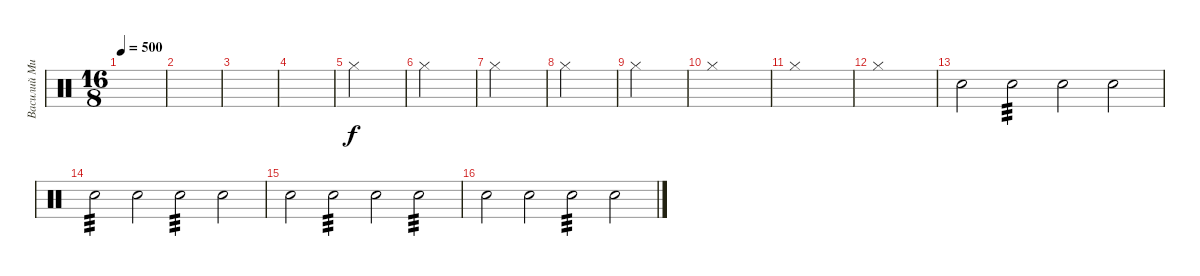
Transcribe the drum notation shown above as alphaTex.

\track ("Василий Михалыч-ударные" "Василий Ми") {instrument percussion}
\staff {score}
\articulation defaults
\ts (16 8)
\tempo 500
\clef neutral
\ks c
|
|
|
|
"Hi-Hat (closed)".2 |
"Hi-Hat (closed)".2 |
"Hi-Hat (closed)".2 |
"Hi-Hat (closed)".2 |
"Hi-Hat (closed)".2 |
"Hi-Hat (closed)".1 |
"Hi-Hat (closed)".1 |
"Hi-Hat (closed)".1 |
"Electric Snare (hit)".2 "Electric Snare (hit)".2{tp 3} "Electric Snare (hit)".2 "Electric Snare (hit)".2 |
"Electric Snare (hit)".2{tp 3} "Electric Snare (hit)".2 "Electric Snare (hit)".2{tp 3} "Electric Snare (hit)".2 |
"Electric Snare (hit)".2 "Electric Snare (hit)".2{tp 3} "Electric Snare (hit)".2 "Electric Snare (hit)".2{tp 3} |
"Electric Snare (hit)".2 "Electric Snare (hit)".2 "Electric Snare (hit)".2{tp 3} "Electric Snare (hit)".2
